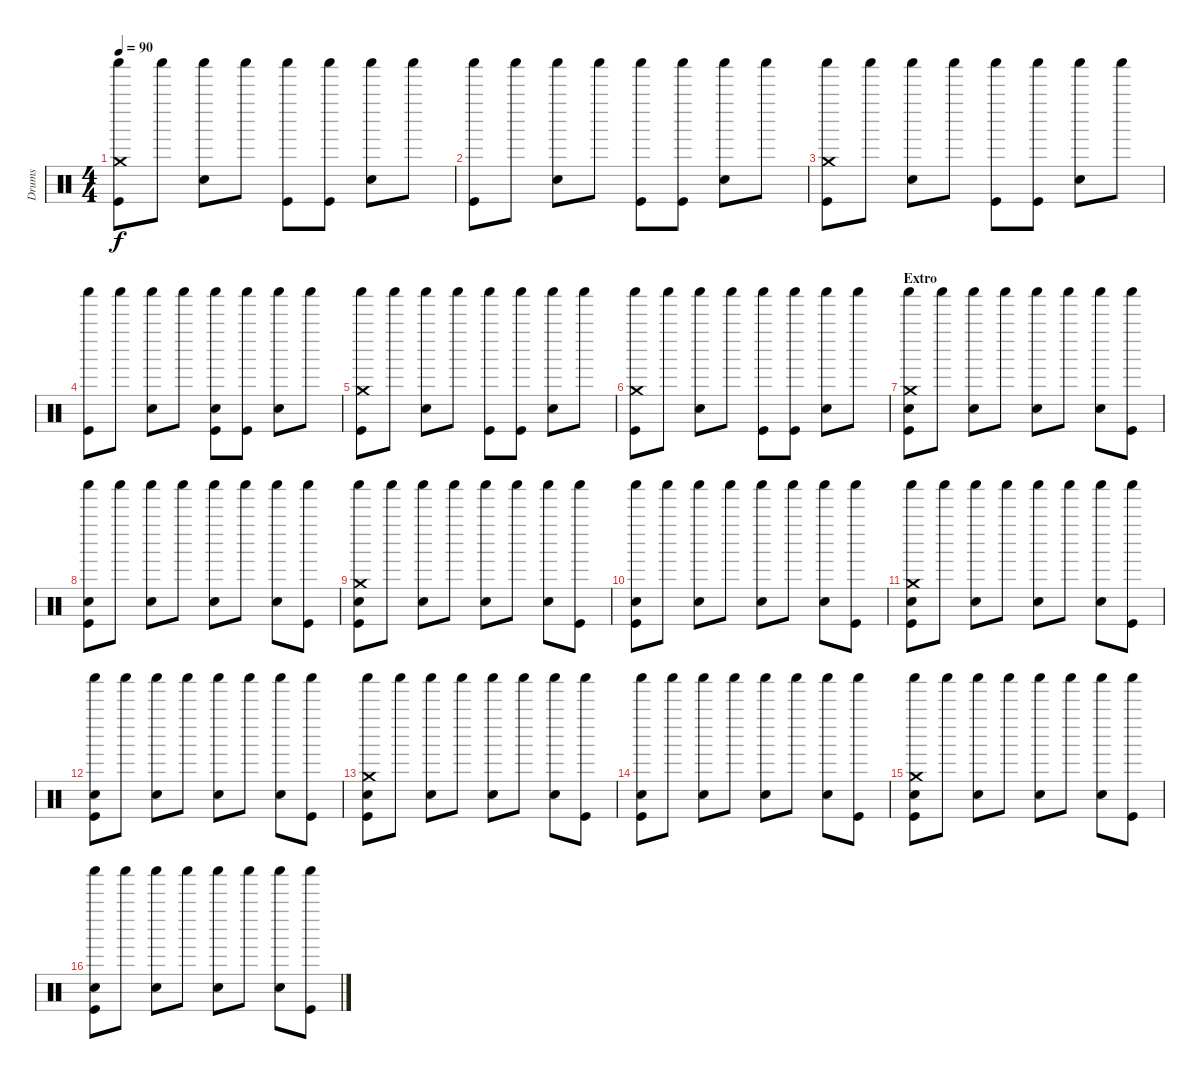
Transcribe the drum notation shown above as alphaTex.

\track ("Drums" "Drums") {instrument percussion}
\staff {score}
\articulation defaults
\ts (4 4)
\tempo 90
\clef neutral
\ks c
("Shaker (hit)" "Crash medium (hit)" "Kick (hit)").8{dy f} "Shaker (hit)".8 ("Shaker (hit)" "Snare (hit) 2").8 "Shaker (hit)".8 ("Shaker (hit)" "Kick (hit)").8 ("Shaker (hit)" "Kick (hit)").8 ("Shaker (hit)" "Snare (hit) 2").8 "Shaker (hit)".8 |
("Shaker (hit)" "Kick (hit)").8 "Shaker (hit)".8 ("Shaker (hit)" "Snare (hit) 2").8 "Shaker (hit)".8 ("Shaker (hit)" "Kick (hit)").8 ("Shaker (hit)" "Kick (hit)").8 ("Shaker (hit)" "Snare (hit) 2").8 "Shaker (hit)".8 |
("Shaker (hit)" "Crash medium (hit)" "Kick (hit)").8 "Shaker (hit)".8 ("Shaker (hit)" "Snare (hit) 2").8 "Shaker (hit)".8 ("Shaker (hit)" "Kick (hit)").8 ("Shaker (hit)" "Kick (hit)").8 ("Shaker (hit)" "Snare (hit) 2").8 "Shaker (hit)".8 |
("Shaker (hit)" "Kick (hit)").8 "Shaker (hit)".8 ("Shaker (hit)" "Snare (hit) 2").8 "Shaker (hit)".8 ("Shaker (hit)" "Snare (hit) 2" "Kick (hit)").8 ("Shaker (hit)" "Kick (hit)").8 ("Shaker (hit)" "Snare (hit) 2").8 "Shaker (hit)".8 |
("Shaker (hit)" "Crash medium (hit)" "Kick (hit)").8 "Shaker (hit)".8 ("Shaker (hit)" "Snare (hit) 2").8 "Shaker (hit)".8 ("Shaker (hit)" "Kick (hit)").8 ("Shaker (hit)" "Kick (hit)").8 ("Shaker (hit)" "Snare (hit) 2").8 "Shaker (hit)".8 |
("Shaker (hit)" "Crash medium (hit)" "Kick (hit)").8 "Shaker (hit)".8 ("Shaker (hit)" "Snare (hit) 2").8 "Shaker (hit)".8 ("Shaker (hit)" "Kick (hit)").8 ("Shaker (hit)" "Kick (hit)").8 ("Shaker (hit)" "Snare (hit) 2").8 "Shaker (hit)".8 |
\section ("" "Extro")
("Shaker (hit)" "Crash medium (hit)" "Snare (hit) 2" "Kick (hit)").8 "Shaker (hit)".8 ("Shaker (hit)" "Snare (hit) 2").8 "Shaker (hit)".8 ("Shaker (hit)" "Snare (hit) 2").8 "Shaker (hit)".8 ("Shaker (hit)" "Snare (hit) 2").8 ("Shaker (hit)" "Kick (hit)").8 |
("Shaker (hit)" "Snare (hit) 2" "Kick (hit)").8 "Shaker (hit)".8 ("Shaker (hit)" "Snare (hit) 2").8 "Shaker (hit)".8 ("Shaker (hit)" "Snare (hit) 2").8 "Shaker (hit)".8 ("Shaker (hit)" "Snare (hit) 2").8 ("Shaker (hit)" "Kick (hit)").8 |
("Shaker (hit)" "Crash medium (hit)" "Snare (hit) 2" "Kick (hit)").8 "Shaker (hit)".8 ("Shaker (hit)" "Snare (hit) 2").8 "Shaker (hit)".8 ("Shaker (hit)" "Snare (hit) 2").8 "Shaker (hit)".8 ("Shaker (hit)" "Snare (hit) 2").8 ("Shaker (hit)" "Kick (hit)").8 |
("Shaker (hit)" "Snare (hit) 2" "Kick (hit)").8 "Shaker (hit)".8 ("Shaker (hit)" "Snare (hit) 2").8 "Shaker (hit)".8 ("Shaker (hit)" "Snare (hit) 2").8 "Shaker (hit)".8 ("Shaker (hit)" "Snare (hit) 2").8 ("Shaker (hit)" "Kick (hit)").8 |
("Shaker (hit)" "Crash medium (hit)" "Snare (hit) 2" "Kick (hit)").8 "Shaker (hit)".8 ("Shaker (hit)" "Snare (hit) 2").8 "Shaker (hit)".8 ("Shaker (hit)" "Snare (hit) 2").8 "Shaker (hit)".8 ("Shaker (hit)" "Snare (hit) 2").8 ("Shaker (hit)" "Kick (hit)").8 |
("Shaker (hit)" "Snare (hit) 2" "Kick (hit)").8 "Shaker (hit)".8 ("Shaker (hit)" "Snare (hit) 2").8 "Shaker (hit)".8 ("Shaker (hit)" "Snare (hit) 2").8 "Shaker (hit)".8 ("Shaker (hit)" "Snare (hit) 2").8 ("Shaker (hit)" "Kick (hit)").8 |
("Shaker (hit)" "Crash medium (hit)" "Snare (hit) 2" "Kick (hit)").8 "Shaker (hit)".8 ("Shaker (hit)" "Snare (hit) 2").8 "Shaker (hit)".8 ("Shaker (hit)" "Snare (hit) 2").8 "Shaker (hit)".8 ("Shaker (hit)" "Snare (hit) 2").8 ("Shaker (hit)" "Kick (hit)").8 |
("Shaker (hit)" "Snare (hit) 2" "Kick (hit)").8 "Shaker (hit)".8 ("Shaker (hit)" "Snare (hit) 2").8 "Shaker (hit)".8 ("Shaker (hit)" "Snare (hit) 2").8 "Shaker (hit)".8 ("Shaker (hit)" "Snare (hit) 2").8 ("Shaker (hit)" "Kick (hit)").8 |
("Shaker (hit)" "Crash medium (hit)" "Snare (hit) 2" "Kick (hit)").8 "Shaker (hit)".8 ("Shaker (hit)" "Snare (hit) 2").8 "Shaker (hit)".8 ("Shaker (hit)" "Snare (hit) 2").8 "Shaker (hit)".8 ("Shaker (hit)" "Snare (hit) 2").8 ("Shaker (hit)" "Kick (hit)").8 |
("Shaker (hit)" "Snare (hit) 2" "Kick (hit)").8 "Shaker (hit)".8 ("Shaker (hit)" "Snare (hit) 2").8 "Shaker (hit)".8 ("Shaker (hit)" "Snare (hit) 2").8 "Shaker (hit)".8 ("Shaker (hit)" "Snare (hit) 2").8 ("Shaker (hit)" "Kick (hit)").8
